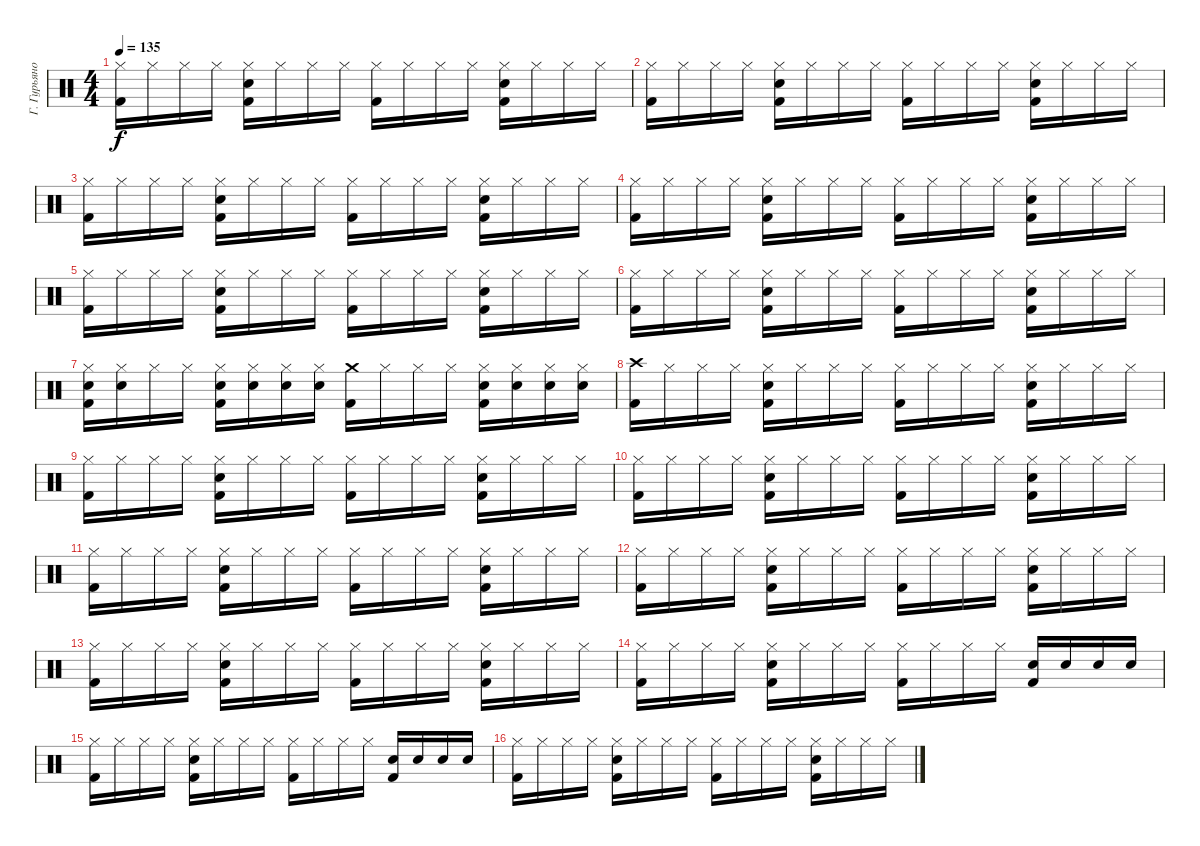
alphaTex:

\track ("Г. Гурьянов" "Г. Гурьяно") {instrument percussion}
\staff {score}
\articulation defaults
\ts (4 4)
\tempo 135
\clef neutral
\ks c
("Hi-Hat (closed)" "Kick (hit) 2").16{dy f} "Hi-Hat (closed)".16 "Hi-Hat (closed)".16 "Hi-Hat (closed)".16 ("Hi-Hat (closed)" "Electric Snare (hit)" "Kick (hit) 2").16 "Hi-Hat (closed)".16 "Hi-Hat (closed)".16 "Hi-Hat (closed)".16 ("Hi-Hat (closed)" "Kick (hit) 2").16 "Hi-Hat (closed)".16 "Hi-Hat (closed)".16 "Hi-Hat (closed)".16 ("Hi-Hat (closed)" "Electric Snare (hit)" "Kick (hit) 2").16 "Hi-Hat (closed)".16 "Hi-Hat (closed)".16 "Hi-Hat (closed)".16 |
("Hi-Hat (closed)" "Kick (hit) 2").16 "Hi-Hat (closed)".16 "Hi-Hat (closed)".16 "Hi-Hat (closed)".16 ("Hi-Hat (closed)" "Electric Snare (hit)" "Kick (hit) 2").16 "Hi-Hat (closed)".16 "Hi-Hat (closed)".16 "Hi-Hat (closed)".16 ("Hi-Hat (closed)" "Kick (hit) 2").16 "Hi-Hat (closed)".16 "Hi-Hat (closed)".16 "Hi-Hat (closed)".16 ("Hi-Hat (closed)" "Electric Snare (hit)" "Kick (hit) 2").16 "Hi-Hat (closed)".16 "Hi-Hat (closed)".16 "Hi-Hat (closed)".16 |
("Hi-Hat (closed)" "Kick (hit) 2").16 "Hi-Hat (closed)".16 "Hi-Hat (closed)".16 "Hi-Hat (closed)".16 ("Hi-Hat (closed)" "Electric Snare (hit)" "Kick (hit) 2").16 "Hi-Hat (closed)".16 "Hi-Hat (closed)".16 "Hi-Hat (closed)".16 ("Hi-Hat (closed)" "Kick (hit) 2").16 "Hi-Hat (closed)".16 "Hi-Hat (closed)".16 "Hi-Hat (closed)".16 ("Hi-Hat (closed)" "Electric Snare (hit)" "Kick (hit) 2").16 "Hi-Hat (closed)".16 "Hi-Hat (closed)".16 "Hi-Hat (closed)".16 |
("Hi-Hat (closed)" "Kick (hit) 2").16 "Hi-Hat (closed)".16 "Hi-Hat (closed)".16 "Hi-Hat (closed)".16 ("Hi-Hat (closed)" "Electric Snare (hit)" "Kick (hit) 2").16 "Hi-Hat (closed)".16 "Hi-Hat (closed)".16 "Hi-Hat (closed)".16 ("Hi-Hat (closed)" "Kick (hit) 2").16 "Hi-Hat (closed)".16 "Hi-Hat (closed)".16 "Hi-Hat (closed)".16 ("Hi-Hat (closed)" "Electric Snare (hit)" "Kick (hit) 2").16 "Hi-Hat (closed)".16 "Hi-Hat (closed)".16 "Hi-Hat (closed)".16 |
("Hi-Hat (closed)" "Kick (hit) 2").16 "Hi-Hat (closed)".16 "Hi-Hat (closed)".16 "Hi-Hat (closed)".16 ("Hi-Hat (closed)" "Electric Snare (hit)" "Kick (hit) 2").16 "Hi-Hat (closed)".16 "Hi-Hat (closed)".16 "Hi-Hat (closed)".16 ("Hi-Hat (closed)" "Kick (hit) 2").16 "Hi-Hat (closed)".16 "Hi-Hat (closed)".16 "Hi-Hat (closed)".16 ("Hi-Hat (closed)" "Electric Snare (hit)" "Kick (hit) 2").16 "Hi-Hat (closed)".16 "Hi-Hat (closed)".16 "Hi-Hat (closed)".16 |
("Hi-Hat (closed)" "Kick (hit) 2").16 "Hi-Hat (closed)".16 "Hi-Hat (closed)".16 "Hi-Hat (closed)".16 ("Hi-Hat (closed)" "Electric Snare (hit)" "Kick (hit) 2").16 "Hi-Hat (closed)".16 "Hi-Hat (closed)".16 "Hi-Hat (closed)".16 ("Hi-Hat (closed)" "Kick (hit) 2").16 "Hi-Hat (closed)".16 "Hi-Hat (closed)".16 "Hi-Hat (closed)".16 ("Hi-Hat (closed)" "Electric Snare (hit)" "Kick (hit) 2").16 "Hi-Hat (closed)".16 "Hi-Hat (closed)".16 "Hi-Hat (closed)".16 |
("Hi-Hat (closed)" "Electric Snare (hit)" "Kick (hit) 2").16 ("Hi-Hat (closed)" "Electric Snare (hit)").16 "Hi-Hat (closed)".16 "Hi-Hat (closed)".16 ("Hi-Hat (closed)" "Electric Snare (hit)" "Kick (hit) 2").16 ("Hi-Hat (closed)" "Electric Snare (hit)").16 ("Hi-Hat (closed)" "Electric Snare (hit)").16 ("Hi-Hat (closed)" "Electric Snare (hit)").16 ("Crash medium (hit)" "Kick (hit) 2").16 "Hi-Hat (closed)".16 "Hi-Hat (closed)".16 "Hi-Hat (closed)".16 ("Hi-Hat (closed)" "Electric Snare (hit)" "Kick (hit) 2").16 ("Hi-Hat (closed)" "Electric Snare (hit)").16 ("Hi-Hat (closed)" "Electric Snare (hit)").16 ("Hi-Hat (closed)" "Electric Snare (hit)").16 |
("Crash high (hit)" "Kick (hit) 2").16 "Hi-Hat (closed)".16 "Hi-Hat (closed)".16 "Hi-Hat (closed)".16 ("Hi-Hat (closed)" "Electric Snare (hit)" "Kick (hit) 2").16 "Hi-Hat (closed)".16 "Hi-Hat (closed)".16 "Hi-Hat (closed)".16 ("Hi-Hat (closed)" "Kick (hit) 2").16 "Hi-Hat (closed)".16 "Hi-Hat (closed)".16 "Hi-Hat (closed)".16 ("Hi-Hat (closed)" "Electric Snare (hit)" "Kick (hit) 2").16 "Hi-Hat (closed)".16 "Hi-Hat (closed)".16 "Hi-Hat (closed)".16 |
("Hi-Hat (closed)" "Kick (hit) 2").16 "Hi-Hat (closed)".16 "Hi-Hat (closed)".16 "Hi-Hat (closed)".16 ("Hi-Hat (closed)" "Electric Snare (hit)" "Kick (hit) 2").16 "Hi-Hat (closed)".16 "Hi-Hat (closed)".16 "Hi-Hat (closed)".16 ("Hi-Hat (closed)" "Kick (hit) 2").16 "Hi-Hat (closed)".16 "Hi-Hat (closed)".16 "Hi-Hat (closed)".16 ("Hi-Hat (closed)" "Electric Snare (hit)" "Kick (hit) 2").16 "Hi-Hat (closed)".16 "Hi-Hat (closed)".16 "Hi-Hat (closed)".16 |
("Hi-Hat (closed)" "Kick (hit) 2").16 "Hi-Hat (closed)".16 "Hi-Hat (closed)".16 "Hi-Hat (closed)".16 ("Hi-Hat (closed)" "Electric Snare (hit)" "Kick (hit) 2").16 "Hi-Hat (closed)".16 "Hi-Hat (closed)".16 "Hi-Hat (closed)".16 ("Hi-Hat (closed)" "Kick (hit) 2").16 "Hi-Hat (closed)".16 "Hi-Hat (closed)".16 "Hi-Hat (closed)".16 ("Hi-Hat (closed)" "Electric Snare (hit)" "Kick (hit) 2").16 "Hi-Hat (closed)".16 "Hi-Hat (closed)".16 "Hi-Hat (closed)".16 |
("Hi-Hat (closed)" "Kick (hit) 2").16 "Hi-Hat (closed)".16 "Hi-Hat (closed)".16 "Hi-Hat (closed)".16 ("Hi-Hat (closed)" "Electric Snare (hit)" "Kick (hit) 2").16 "Hi-Hat (closed)".16 "Hi-Hat (closed)".16 "Hi-Hat (closed)".16 ("Hi-Hat (closed)" "Kick (hit) 2").16 "Hi-Hat (closed)".16 "Hi-Hat (closed)".16 "Hi-Hat (closed)".16 ("Hi-Hat (closed)" "Electric Snare (hit)" "Kick (hit) 2").16 "Hi-Hat (closed)".16 "Hi-Hat (closed)".16 "Hi-Hat (closed)".16 |
("Hi-Hat (closed)" "Kick (hit) 2").16 "Hi-Hat (closed)".16 "Hi-Hat (closed)".16 "Hi-Hat (closed)".16 ("Hi-Hat (closed)" "Electric Snare (hit)" "Kick (hit) 2").16 "Hi-Hat (closed)".16 "Hi-Hat (closed)".16 "Hi-Hat (closed)".16 ("Hi-Hat (closed)" "Kick (hit) 2").16 "Hi-Hat (closed)".16 "Hi-Hat (closed)".16 "Hi-Hat (closed)".16 ("Hi-Hat (closed)" "Electric Snare (hit)" "Kick (hit) 2").16 "Hi-Hat (closed)".16 "Hi-Hat (closed)".16 "Hi-Hat (closed)".16 |
("Hi-Hat (closed)" "Kick (hit) 2").16 "Hi-Hat (closed)".16 "Hi-Hat (closed)".16 "Hi-Hat (closed)".16 ("Hi-Hat (closed)" "Electric Snare (hit)" "Kick (hit) 2").16 "Hi-Hat (closed)".16 "Hi-Hat (closed)".16 "Hi-Hat (closed)".16 ("Hi-Hat (closed)" "Kick (hit) 2").16 "Hi-Hat (closed)".16 "Hi-Hat (closed)".16 "Hi-Hat (closed)".16 ("Hi-Hat (closed)" "Electric Snare (hit)" "Kick (hit) 2").16 "Hi-Hat (closed)".16 "Hi-Hat (closed)".16 "Hi-Hat (closed)".16 |
("Hi-Hat (closed)" "Kick (hit) 2").16 "Hi-Hat (closed)".16 "Hi-Hat (closed)".16 "Hi-Hat (closed)".16 ("Hi-Hat (closed)" "Electric Snare (hit)" "Kick (hit) 2").16 "Hi-Hat (closed)".16 "Hi-Hat (closed)".16 "Hi-Hat (closed)".16 ("Hi-Hat (closed)" "Kick (hit) 2").16 "Hi-Hat (closed)".16 "Hi-Hat (closed)".16 "Hi-Hat (closed)".16 ("Electric Snare (hit)" "Kick (hit) 2").16 "Electric Snare (hit)".16 "Electric Snare (hit)".16 "Electric Snare (hit)".16 |
("Hi-Hat (closed)" "Kick (hit) 2").16 "Hi-Hat (closed)".16 "Hi-Hat (closed)".16 "Hi-Hat (closed)".16 ("Hi-Hat (closed)" "Electric Snare (hit)" "Kick (hit) 2").16 "Hi-Hat (closed)".16 "Hi-Hat (closed)".16 "Hi-Hat (closed)".16 ("Hi-Hat (closed)" "Kick (hit) 2").16 "Hi-Hat (closed)".16 "Hi-Hat (closed)".16 "Hi-Hat (closed)".16 ("Electric Snare (hit)" "Kick (hit) 2").16 "Electric Snare (hit)".16 "Electric Snare (hit)".16 "Electric Snare (hit)".16 |
("Hi-Hat (closed)" "Kick (hit) 2").16 "Hi-Hat (closed)".16 "Hi-Hat (closed)".16 "Hi-Hat (closed)".16 ("Hi-Hat (closed)" "Electric Snare (hit)" "Kick (hit) 2").16 "Hi-Hat (closed)".16 "Hi-Hat (closed)".16 "Hi-Hat (closed)".16 ("Hi-Hat (closed)" "Kick (hit) 2").16 "Hi-Hat (closed)".16 "Hi-Hat (closed)".16 "Hi-Hat (closed)".16 ("Hi-Hat (closed)" "Electric Snare (hit)" "Kick (hit) 2").16 "Hi-Hat (closed)".16 "Hi-Hat (closed)".16 "Hi-Hat (closed)".16
